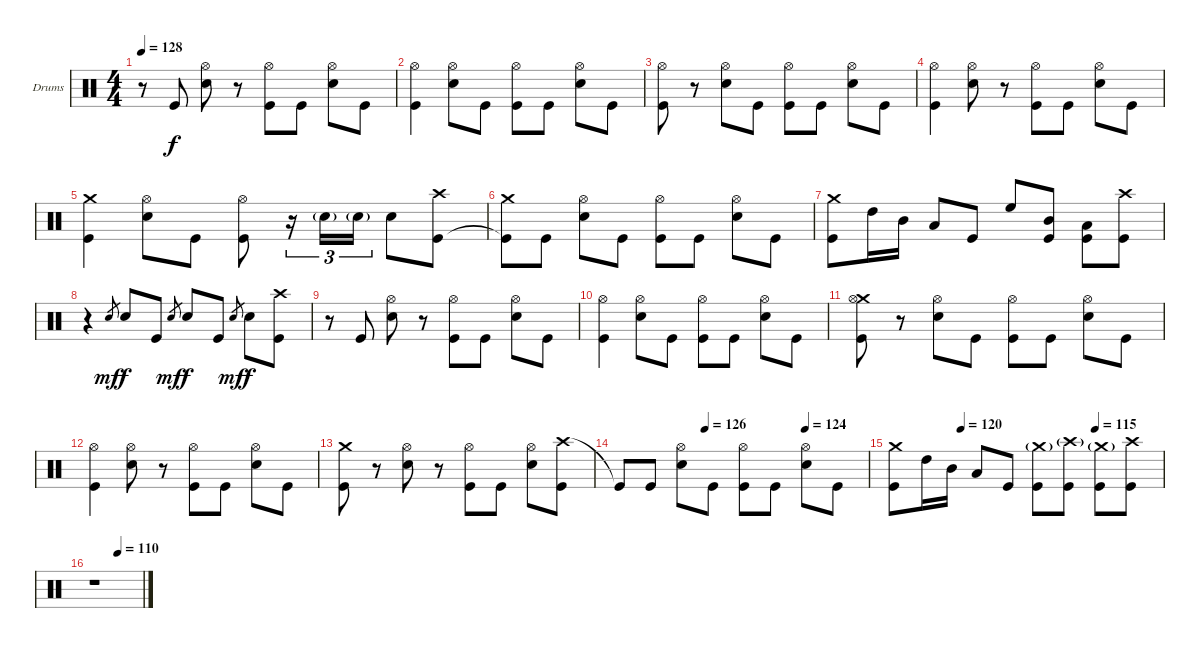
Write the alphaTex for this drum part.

\defaultSystemsLayout 4
\bracketExtendMode groupsimilarinstruments
\firstSystemTrackNameOrientation horizontal
\otherSystemsTrackNameOrientation horizontal
\track ("Drumkit" "Drums") {instrument percussion}
\staff {score}
\articulation defaults
\ts (4 4)
\tempo 128
\clef neutral
\ks c
r.8{dy f} "Kick (hit)".8 ("Hi-Hat (open)" "Snare (hit) 2").8 r.8 ("Hi-Hat (open)" "Kick (hit)").8 "Kick (hit)".8 ("Hi-Hat (open)" "Snare (hit) 2").8 "Kick (hit)".8 |
("Hi-Hat (open)" "Kick (hit)").4 ("Hi-Hat (open)" "Snare (hit) 2").8 "Kick (hit)".8 ("Hi-Hat (open)" "Kick (hit)").8 "Kick (hit)".8 ("Hi-Hat (open)" "Snare (hit) 2").8 "Kick (hit)".8 |
("Hi-Hat (open)" "Kick (hit)").8 r.8 ("Hi-Hat (open)" "Snare (hit) 2").8 "Kick (hit)".8 ("Hi-Hat (open)" "Kick (hit)").8 "Kick (hit)".8 ("Hi-Hat (open)" "Snare (hit) 2").8 "Kick (hit)".8 |
("Hi-Hat (open)" "Kick (hit)").4 ("Hi-Hat (open)" "Snare (hit) 2").8 r.8 ("Hi-Hat (open)" "Kick (hit)").8 "Kick (hit)".8 ("Hi-Hat (open)" "Snare (hit) 2").8 "Kick (hit)".8 |
("Crash medium (hit)" "Kick (hit)").4 ("Hi-Hat (open)" "Snare (hit) 2").8 "Kick (hit)".8 ("Hi-Hat (open)" "Kick (hit)").8 r.16{tu (3 2)} "Snare (hit) 2"{g}.16{tu (3 2)} "Snare (hit) 2"{g}.16{tu (3 2)} "Snare (hit) 2".8 ("Crash high (hit)" "Kick (hit)").8 |
("Crash medium (hit)" "Kick (hit)"{t}).8 "Kick (hit)".8 ("Hi-Hat (open)" "Snare (hit) 2").8 "Kick (hit)".8 ("Hi-Hat (open)" "Kick (hit)").8 "Kick (hit)".8 ("Hi-Hat (open)" "Snare (hit) 2").8 "Kick (hit)".8 |
("Crash medium (hit)" "Kick (hit)").8 "High Tom (hit)".16 "Mid Tom (hit)".16 "Low Tom (hit)".8 "Kick (hit)".8 "High Floor Tom (hit)".8 ("Mid Tom (hit)" "Kick (hit)").8 ("Low Tom (hit)" "Kick (hit)").8 ("Crash high (hit)" "Kick (hit)").8 |
r.4 "Snare (hit) 2".8{gr dy mf} "Snare (hit) 2".8{dy f} "Kick (hit)".8 "Snare (hit) 2".8{gr dy mf} "Snare (hit) 2".8{dy f} "Kick (hit)".8 "Snare (hit) 2".8{gr dy mf} "Snare (hit) 2".8{dy f} ("Crash high (hit)" "Kick (hit)").8 |
r.8 "Kick (hit)".8 ("Hi-Hat (open)" "Snare (hit) 2").8 r.8 ("Hi-Hat (open)" "Kick (hit)").8 "Kick (hit)".8 ("Hi-Hat (open)" "Snare (hit) 2").8 "Kick (hit)".8 |
("Hi-Hat (open)" "Kick (hit)").4 ("Hi-Hat (open)" "Snare (hit) 2").8 "Kick (hit)".8 ("Hi-Hat (open)" "Kick (hit)").8 "Kick (hit)".8 ("Hi-Hat (open)" "Snare (hit) 2").8 "Kick (hit)".8 |
("Crash medium (hit)" "Hi-Hat (open)" "Kick (hit)").8 r.8 ("Hi-Hat (open)" "Snare (hit) 2").8 "Kick (hit)".8 ("Hi-Hat (open)" "Kick (hit)").8 "Kick (hit)".8 ("Hi-Hat (open)" "Snare (hit) 2").8 "Kick (hit)".8 |
("Hi-Hat (open)" "Kick (hit)").4 ("Hi-Hat (open)" "Snare (hit) 2").8 r.8 ("Hi-Hat (open)" "Kick (hit)").8 "Kick (hit)".8 ("Hi-Hat (open)" "Snare (hit) 2").8 "Kick (hit)".8 |
("Crash medium (hit)" "Kick (hit)").8 r.8 ("Hi-Hat (open)" "Snare (hit) 2").8 r.8 ("Hi-Hat (open)" "Kick (hit)").8 "Kick (hit)".8 ("Hi-Hat (open)" "Snare (hit) 2").8 ("Crash high (hit)" "Kick (hit)").8 |
\tempo (126 0.348361)
\tempo (124 0.75)
"Kick (hit)"{t}.8 "Kick (hit)".8 ("Hi-Hat (open)" "Snare (hit) 2").8 "Kick (hit)".8 ("Hi-Hat (open)" "Kick (hit)").8 "Kick (hit)".8 ("Hi-Hat (open)" "Snare (hit) 2").8 "Kick (hit)".8 |
\tempo (120 0.248538)
\tempo (115 0.75)
("Crash medium (hit)" "Kick (hit)").8 "High Tom (hit)".16 "Mid Tom (hit)".16 "Low Tom (hit)".8 "Kick (hit)".8 ("Crash medium (hit)"{g} "Kick (hit)").8 ("Crash high (hit)"{g} "Kick (hit)").8 ("Crash medium (hit)"{g} "Kick (hit)").8 ("Crash high (hit)" "Kick (hit)").8 |
\tempo (110 0.5)
r.1
